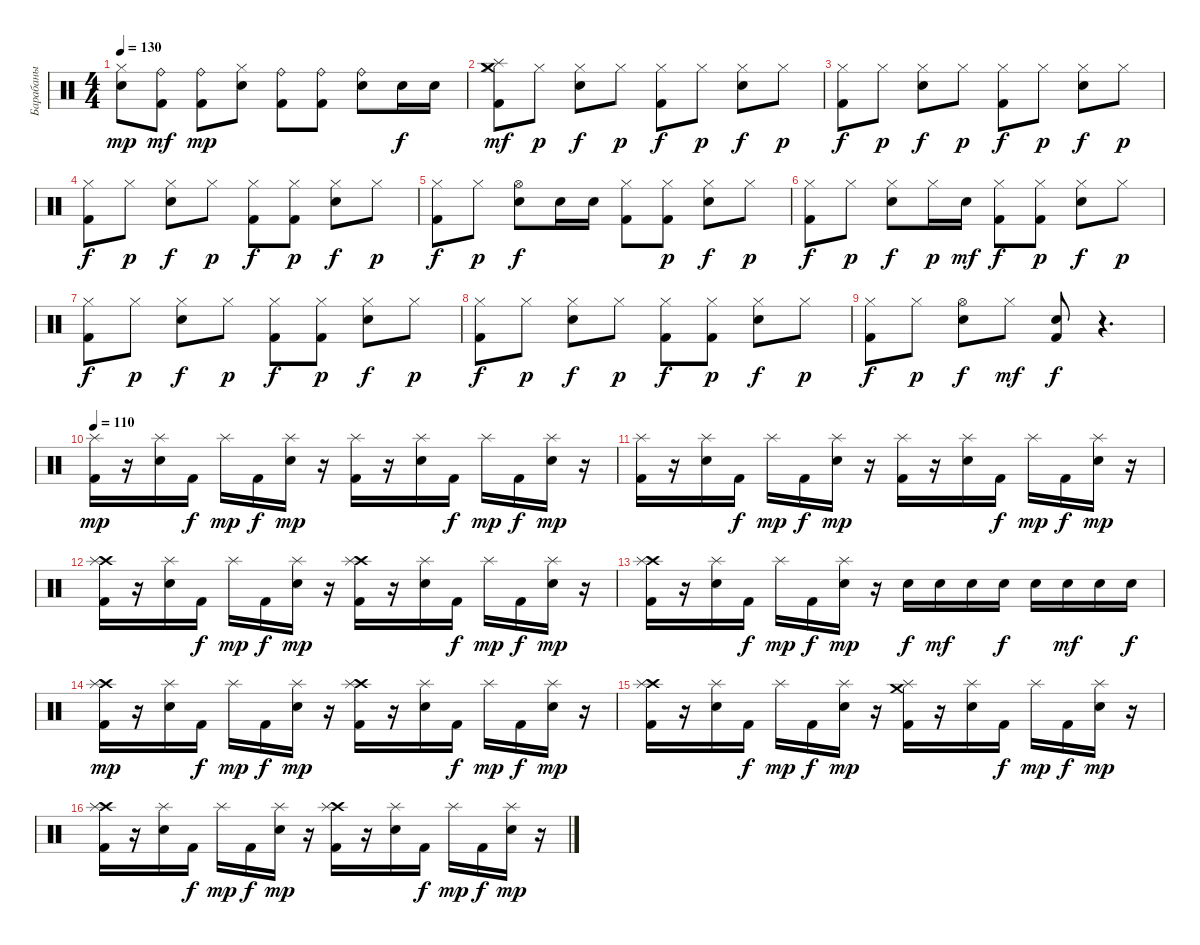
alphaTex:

\track ("Барабаны" "Барабаны") {instrument percussion}
\staff {score}
\articulation defaults
\ts (4 4)
\tempo 130
\clef neutral
\ks c
("Hi-Hat (closed)" "Snare (hit) 2").8{dy mp} ("Ride (bell)" "Kick (hit) 2").8{dy mf} ("Ride (bell)" "Kick (hit) 2").8{dy mp} ("Hi-Hat (closed)" "Snare (hit) 2").8 ("Ride (bell)" "Kick (hit) 2").8 ("Ride (bell)" "Kick (hit) 2").8 ("Ride (bell)" "Snare (hit) 2").8 "Snare (hit) 2".16{dy f} "Snare (hit) 2".16 |
("Crash medium (hit)" "Splash (hit)" "Hi-Hat (closed)" "Kick (hit) 2").8{dy mf} "Hi-Hat (closed)".8{dy p} ("Snare (hit) 2" "Hi-Hat (closed)").8{dy f} "Hi-Hat (closed)".8{dy p} ("Hi-Hat (closed)" "Kick (hit) 2").8{dy f} "Hi-Hat (closed)".8{dy p} ("Snare (hit) 2" "Hi-Hat (closed)").8{dy f} "Hi-Hat (closed)".8{dy p} |
("Hi-Hat (closed)" "Kick (hit) 2").8{dy f} "Hi-Hat (closed)".8{dy p} ("Snare (hit) 2" "Hi-Hat (closed)").8{dy f} "Hi-Hat (closed)".8{dy p} ("Hi-Hat (closed)" "Kick (hit) 2").8{dy f} "Hi-Hat (closed)".8{dy p} ("Snare (hit) 2" "Hi-Hat (closed)").8{dy f} "Hi-Hat (closed)".8{dy p} |
("Hi-Hat (closed)" "Kick (hit) 2").8{dy f} "Hi-Hat (closed)".8{dy p} ("Snare (hit) 2" "Hi-Hat (closed)").8{dy f} "Hi-Hat (closed)".8{dy p} ("Hi-Hat (closed)" "Kick (hit) 2").8{dy f} ("Kick (hit) 2" "Hi-Hat (closed)").8{dy p} ("Snare (hit) 2" "Hi-Hat (closed)").8{dy f} "Hi-Hat (closed)".8{dy p} |
("Hi-Hat (closed)" "Kick (hit) 2").8{dy f} "Hi-Hat (closed)".8{dy p} ("Snare (hit) 2" "Hi-Hat (open)").8{dy f} "Snare (hit) 2".16 "Snare (hit) 2".16 ("Hi-Hat (closed)" "Kick (hit) 2").8 ("Kick (hit) 2" "Hi-Hat (closed)").8{dy p} ("Snare (hit) 2" "Hi-Hat (closed)").8{dy f} "Hi-Hat (closed)".8{dy p} |
("Hi-Hat (closed)" "Kick (hit) 2").8{dy f} "Hi-Hat (closed)".8{dy p} ("Snare (hit) 2" "Hi-Hat (closed)").8{dy f} "Hi-Hat (closed)".16{dy p} "Snare (hit) 2".16{dy mf} ("Hi-Hat (closed)" "Kick (hit) 2").8{dy f} ("Kick (hit) 2" "Hi-Hat (closed)").8{dy p} ("Snare (hit) 2" "Hi-Hat (closed)").8{dy f} "Hi-Hat (closed)".8{dy p} |
("Hi-Hat (closed)" "Kick (hit) 2").8{dy f} "Hi-Hat (closed)".8{dy p} ("Snare (hit) 2" "Hi-Hat (closed)").8{dy f} "Hi-Hat (closed)".8{dy p} ("Hi-Hat (closed)" "Kick (hit) 2").8{dy f} ("Kick (hit) 2" "Hi-Hat (closed)").8{dy p} ("Snare (hit) 2" "Hi-Hat (closed)").8{dy f} "Hi-Hat (closed)".8{dy p} |
("Hi-Hat (closed)" "Kick (hit) 2").8{dy f} "Hi-Hat (closed)".8{dy p} ("Snare (hit) 2" "Hi-Hat (closed)").8{dy f} "Hi-Hat (closed)".8{dy p} ("Hi-Hat (closed)" "Kick (hit) 2").8{dy f} ("Kick (hit) 2" "Hi-Hat (closed)").8{dy p} ("Snare (hit) 2" "Hi-Hat (closed)").8{dy f} "Hi-Hat (closed)".8{dy p} |
("Hi-Hat (closed)" "Kick (hit) 2").8{dy f} "Hi-Hat (closed)".8{dy p} ("Snare (hit) 2" "Hi-Hat (open)").8{dy f} "Hi-Hat (closed)".8{dy mf} ("Snare (hit) 2" "Kick (hit) 2").8{dy f} r.4{d} |
\tempo 110
("Splash (hit)" "Kick (hit) 2").16{dy mp} r.16 ("Splash (hit)" "Snare (hit) 2").16 "Kick (hit) 2".16{dy f} "Splash (hit)".16{dy mp} "Kick (hit) 2".16{dy f} ("Splash (hit)" "Snare (hit) 2").16{dy mp} r.16 ("Splash (hit)" "Kick (hit) 2").16 r.16 ("Splash (hit)" "Snare (hit) 2").16 "Kick (hit) 2".16{dy f} "Splash (hit)".16{dy mp} "Kick (hit) 2".16{dy f} ("Splash (hit)" "Snare (hit) 2").16{dy mp} r.16 |
("Splash (hit)" "Kick (hit) 2").16 r.16 ("Splash (hit)" "Snare (hit) 2").16 "Kick (hit) 2".16{dy f} "Splash (hit)".16{dy mp} "Kick (hit) 2".16{dy f} ("Splash (hit)" "Snare (hit) 2").16{dy mp} r.16 ("Splash (hit)" "Kick (hit) 2").16 r.16 ("Splash (hit)" "Snare (hit) 2").16 "Kick (hit) 2".16{dy f} "Splash (hit)".16{dy mp} "Kick (hit) 2".16{dy f} ("Splash (hit)" "Snare (hit) 2").16{dy mp} r.16 |
("Crash high (hit)" "Splash (hit)" "Kick (hit) 2").16 r.16 ("Splash (hit)" "Snare (hit) 2").16 "Kick (hit) 2".16{dy f} "Splash (hit)".16{dy mp} "Kick (hit) 2".16{dy f} ("Splash (hit)" "Snare (hit) 2").16{dy mp} r.16 ("Crash high (hit)" "Splash (hit)" "Kick (hit) 2").16 r.16 ("Splash (hit)" "Snare (hit) 2").16 "Kick (hit) 2".16{dy f} "Splash (hit)".16{dy mp} "Kick (hit) 2".16{dy f} ("Splash (hit)" "Snare (hit) 2").16{dy mp} r.16 |
("Crash high (hit)" "Splash (hit)" "Kick (hit) 2").16 r.16 ("Splash (hit)" "Snare (hit) 2").16 "Kick (hit) 2".16{dy f} "Splash (hit)".16{dy mp} "Kick (hit) 2".16{dy f} ("Splash (hit)" "Snare (hit) 2").16{dy mp} r.16 "Snare (hit) 2".16{dy f} "Snare (hit) 2".16{dy mf} "Snare (hit) 2".16 "Snare (hit) 2".16{dy f} "Snare (hit) 2".16 "Snare (hit) 2".16{dy mf} "Snare (hit) 2".16 "Snare (hit) 2".16{dy f} |
("Crash high (hit)" "Splash (hit)" "Kick (hit) 2").16{dy mp} r.16 ("Splash (hit)" "Snare (hit) 2").16 "Kick (hit) 2".16{dy f} "Splash (hit)".16{dy mp} "Kick (hit) 2".16{dy f} ("Splash (hit)" "Snare (hit) 2").16{dy mp} r.16 ("Crash high (hit)" "Splash (hit)" "Kick (hit) 2").16 r.16 ("Splash (hit)" "Snare (hit) 2").16 "Kick (hit) 2".16{dy f} "Splash (hit)".16{dy mp} "Kick (hit) 2".16{dy f} ("Splash (hit)" "Snare (hit) 2").16{dy mp} r.16 |
("Crash high (hit)" "Splash (hit)" "Kick (hit) 2").16 r.16 ("Splash (hit)" "Snare (hit) 2").16 "Kick (hit) 2".16{dy f} "Splash (hit)".16{dy mp} "Kick (hit) 2".16{dy f} ("Splash (hit)" "Snare (hit) 2").16{dy mp} r.16 ("Crash medium (hit)" "Splash (hit)" "Kick (hit) 2").16 r.16 ("Splash (hit)" "Snare (hit) 2").16 "Kick (hit) 2".16{dy f} "Splash (hit)".16{dy mp} "Kick (hit) 2".16{dy f} ("Splash (hit)" "Snare (hit) 2").16{dy mp} r.16 |
("Crash high (hit)" "Splash (hit)" "Kick (hit) 2").16 r.16 ("Splash (hit)" "Snare (hit) 2").16 "Kick (hit) 2".16{dy f} "Splash (hit)".16{dy mp} "Kick (hit) 2".16{dy f} ("Splash (hit)" "Snare (hit) 2").16{dy mp} r.16 ("Crash high (hit)" "Splash (hit)" "Kick (hit) 2").16 r.16 ("Splash (hit)" "Snare (hit) 2").16 "Kick (hit) 2".16{dy f} "Splash (hit)".16{dy mp} "Kick (hit) 2".16{dy f} ("Splash (hit)" "Snare (hit) 2").16{dy mp} r.16
